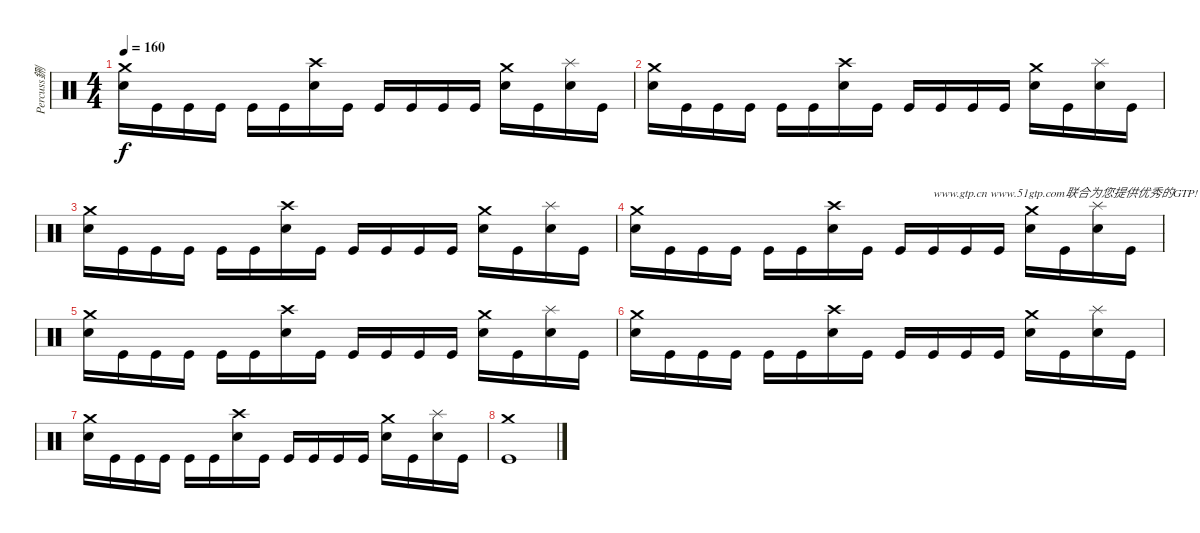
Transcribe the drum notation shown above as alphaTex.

\track ("Percuss鉶" "Percuss鉶") {instrument percussion}
\staff {score}
\articulation defaults
\ts (4 4)
\tempo 160
\clef neutral
\ks c
("Crash medium (hit)" "Electric Snare (hit)").16{dy f} "Kick (hit)".16 "Kick (hit)".16 "Kick (hit)".16 "Kick (hit)".16 "Kick (hit)".16 ("Crash high (hit)" "Electric Snare (hit)").16 "Kick (hit)".16 "Kick (hit)".16 "Kick (hit)".16 "Kick (hit)".16 "Kick (hit)".16 ("Crash medium (hit)" "Electric Snare (hit)").16 "Kick (hit)".16 ("Splash (hit)" "Electric Snare (hit)").16 "Kick (hit)".16 |
("Crash medium (hit)" "Electric Snare (hit)").16 "Kick (hit)".16 "Kick (hit)".16 "Kick (hit)".16 "Kick (hit)".16 "Kick (hit)".16 ("Crash high (hit)" "Electric Snare (hit)").16 "Kick (hit)".16 "Kick (hit)".16 "Kick (hit)".16 "Kick (hit)".16 "Kick (hit)".16 ("Crash medium (hit)" "Electric Snare (hit)").16 "Kick (hit)".16 ("Splash (hit)" "Electric Snare (hit)").16 "Kick (hit)".16 |
("Crash medium (hit)" "Electric Snare (hit)").16{volume 7} "Kick (hit)".16 "Kick (hit)".16 "Kick (hit)".16 "Kick (hit)".16 "Kick (hit)".16 ("Crash high (hit)" "Electric Snare (hit)").16 "Kick (hit)".16 "Kick (hit)".16 "Kick (hit)".16 "Kick (hit)".16 "Kick (hit)".16 ("Crash medium (hit)" "Electric Snare (hit)").16 "Kick (hit)".16 ("Splash (hit)" "Electric Snare (hit)").16 "Kick (hit)".16 |
("Crash medium (hit)" "Electric Snare (hit)").16 "Kick (hit)".16 "Kick (hit)".16 "Kick (hit)".16 "Kick (hit)".16 "Kick (hit)".16 ("Crash high (hit)" "Electric Snare (hit)").16 "Kick (hit)".16 "Kick (hit)".16 "Kick (hit)".16{txt "www.gtp.cn www.51gtp.com联合为您提供优秀的GTP!"} "Kick (hit)".16 "Kick (hit)".16 ("Crash medium (hit)" "Electric Snare (hit)").16 "Kick (hit)".16 ("Splash (hit)" "Electric Snare (hit)").16 "Kick (hit)".16 |
("Crash medium (hit)" "Electric Snare (hit)").16 "Kick (hit)".16 "Kick (hit)".16 "Kick (hit)".16 "Kick (hit)".16 "Kick (hit)".16 ("Crash high (hit)" "Electric Snare (hit)").16 "Kick (hit)".16 "Kick (hit)".16 "Kick (hit)".16 "Kick (hit)".16 "Kick (hit)".16 ("Crash medium (hit)" "Electric Snare (hit)").16 "Kick (hit)".16 ("Splash (hit)" "Electric Snare (hit)").16 "Kick (hit)".16 |
("Crash medium (hit)" "Electric Snare (hit)").16 "Kick (hit)".16 "Kick (hit)".16 "Kick (hit)".16 "Kick (hit)".16 "Kick (hit)".16 ("Crash high (hit)" "Electric Snare (hit)").16 "Kick (hit)".16 "Kick (hit)".16 "Kick (hit)".16 "Kick (hit)".16 "Kick (hit)".16 ("Crash medium (hit)" "Electric Snare (hit)").16 "Kick (hit)".16 ("Splash (hit)" "Electric Snare (hit)").16 "Kick (hit)".16 |
("Crash medium (hit)" "Electric Snare (hit)").16{volume 2} "Kick (hit)".16 "Kick (hit)".16 "Kick (hit)".16 "Kick (hit)".16 "Kick (hit)".16 ("Crash high (hit)" "Electric Snare (hit)").16 "Kick (hit)".16 "Kick (hit)".16 "Kick (hit)".16 "Kick (hit)".16 "Kick (hit)".16 ("Crash medium (hit)" "Electric Snare (hit)").16 "Kick (hit)".16 ("Splash (hit)" "Electric Snare (hit)").16 "Kick (hit)".16 |
("Crash medium (hit)" "Kick (hit)").1
